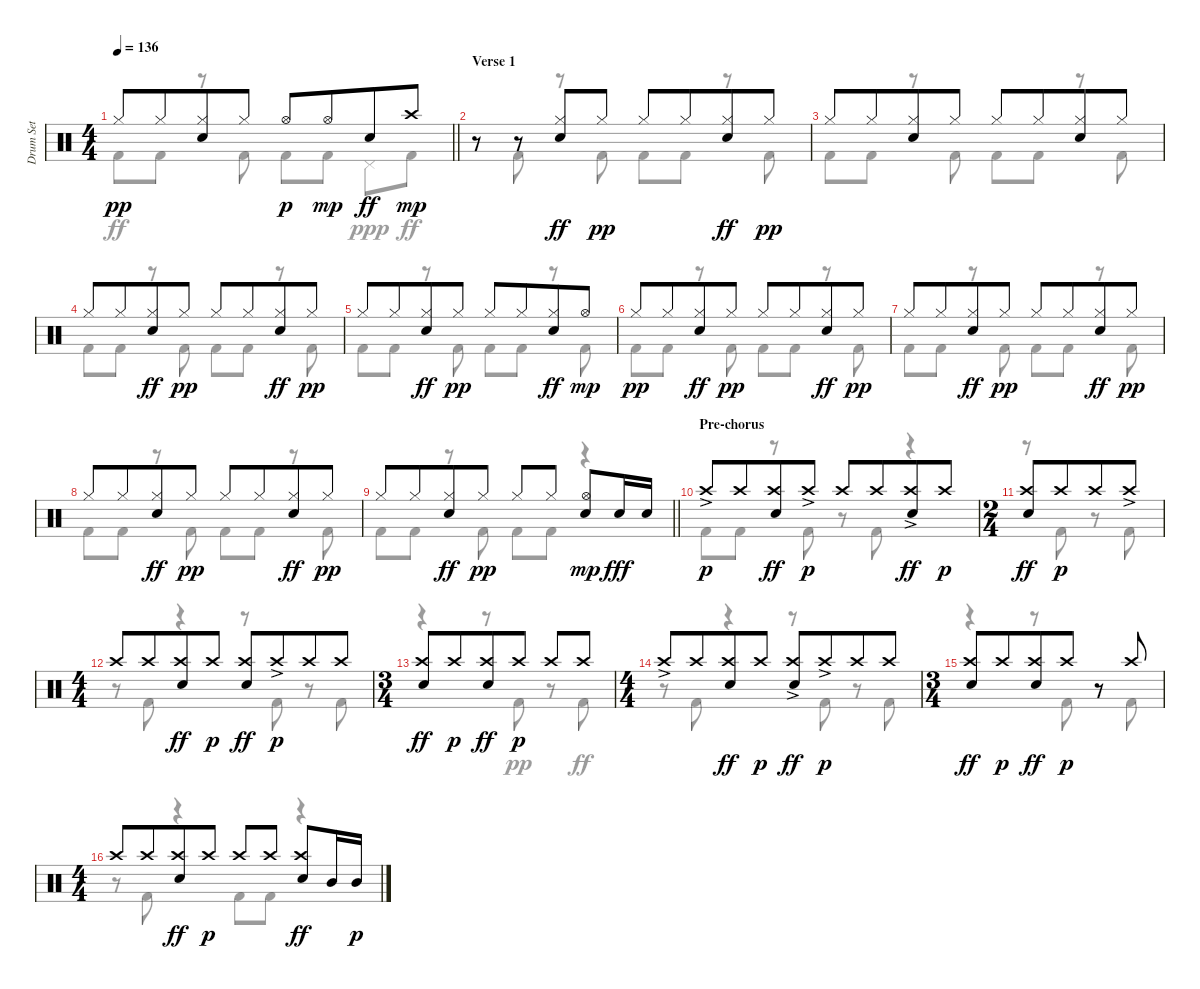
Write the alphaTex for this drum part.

\track ("Drum Set" "Drum Set") {instrument percussion}
\staff {score}
\articulation defaults
\voice
\ts (4 4)
\tempo 136
\clef neutral
\barLineRight lightlight
\ks c "Hi-Hat (closed)".8{dy pp} "Hi-Hat (closed)".8{beam merge}
("Electric Snare (hit)" "Hi-Hat (closed)").8 "Hi-Hat (closed)".8 "Hi-Hat (open)".8{dy p} "Hi-Hat (open)".8{dy mp beam merge} "Electric Snare (hit)".8{dy ff} "Crash high (hit)".8{dy mp} |
\section ("" "Verse 1")
r.8 r.8 ("Hi-Hat (closed)" "Electric Snare (hit)").8{dy ff} "Hi-Hat (closed)".8{dy pp} "Hi-Hat (closed)".8 "Hi-Hat (closed)".8{beam merge} ("Hi-Hat (closed)" "Electric Snare (hit)").8{dy ff} "Hi-Hat (closed)".8{dy pp} |
"Hi-Hat (closed)".8 "Hi-Hat (closed)".8{beam merge} ("Electric Snare (hit)" "Hi-Hat (closed)").8 "Hi-Hat (closed)".8 "Hi-Hat (closed)".8 "Hi-Hat (closed)".8{beam merge} ("Electric Snare (hit)" "Hi-Hat (closed)").8 "Hi-Hat (closed)".8 |
"Hi-Hat (closed)".8 "Hi-Hat (closed)".8{beam merge} ("Hi-Hat (closed)" "Electric Snare (hit)").8{dy ff} "Hi-Hat (closed)".8{dy pp} "Hi-Hat (closed)".8 "Hi-Hat (closed)".8{beam merge} ("Hi-Hat (closed)" "Electric Snare (hit)").8{dy ff} "Hi-Hat (closed)".8{dy pp} |
"Hi-Hat (closed)".8 "Hi-Hat (closed)".8{beam merge} ("Hi-Hat (closed)" "Electric Snare (hit)").8{dy ff} "Hi-Hat (closed)".8{dy pp} "Hi-Hat (closed)".8 "Hi-Hat (closed)".8{beam merge} ("Hi-Hat (closed)" "Electric Snare (hit)").8{dy ff} "Hi-Hat (open)".8{dy mp} |
"Hi-Hat (closed)".8{dy pp} "Hi-Hat (closed)".8{beam merge} ("Hi-Hat (closed)" "Electric Snare (hit)").8{dy ff} "Hi-Hat (closed)".8{dy pp} "Hi-Hat (closed)".8 "Hi-Hat (closed)".8{beam merge} ("Hi-Hat (closed)" "Electric Snare (hit)").8{dy ff} "Hi-Hat (closed)".8{dy pp} |
"Hi-Hat (closed)".8 "Hi-Hat (closed)".8{beam merge} ("Hi-Hat (closed)" "Electric Snare (hit)").8{dy ff} "Hi-Hat (closed)".8{dy pp} "Hi-Hat (closed)".8 "Hi-Hat (closed)".8{beam merge} ("Hi-Hat (closed)" "Electric Snare (hit)").8{dy ff} "Hi-Hat (closed)".8{dy pp} |
"Hi-Hat (closed)".8 "Hi-Hat (closed)".8{beam merge} ("Hi-Hat (closed)" "Electric Snare (hit)").8{dy ff} "Hi-Hat (closed)".8{dy pp} "Hi-Hat (closed)".8 "Hi-Hat (closed)".8{beam merge} ("Hi-Hat (closed)" "Electric Snare (hit)").8{dy ff} "Hi-Hat (closed)".8{dy pp} |
\barLineRight lightlight "Hi-Hat (closed)".8 "Hi-Hat (closed)".8{beam merge}
("Hi-Hat (closed)" "Electric Snare (hit)").8{dy ff} "Hi-Hat (closed)".8{dy pp} "Hi-Hat (closed)".8 "Hi-Hat (closed)".8 ("Electric Snare (hit)" "Hi-Hat (open)").8{dy mp} "Electric Snare (hit)".16{dy fff} "Electric Snare (hit)".16 |
\section ("" "Pre-chorus")
"Crash high (hit)"{ac}.8{dy p} "Crash high (hit)".8{beam merge} ("Crash high (hit)" "Electric Snare (hit)").8{dy ff} "Crash high (hit)"{ac}.8{dy p} "Crash high (hit)".8 "Crash high (hit)".8{beam merge} ("Crash high (hit)"{ac} "Electric Snare (hit)").8{dy ff} "Crash high (hit)".8{dy p} |
\ts (2 4)
("Crash high (hit)" "Electric Snare (hit)").8{dy ff} "Crash high (hit)".8{dy p beam merge} "Crash high (hit)".8 "Crash high (hit)"{ac}.8 |
\ts (4 4)
"Crash high (hit)".8 "Crash high (hit)".8{beam merge} ("Crash high (hit)" "Electric Snare (hit)").8{dy ff} "Crash high (hit)".8{dy p} ("Crash high (hit)" "Electric Snare (hit)").8{dy ff} "Crash high (hit)"{ac}.8{dy p beam merge} "Crash high (hit)".8 "Crash high (hit)".8 |
\ts (3 4)
("Crash high (hit)" "Electric Snare (hit)").8{dy ff} "Crash high (hit)".8{dy p beam merge} ("Crash high (hit)" "Electric Snare (hit)").8{dy ff} "Crash high (hit)".8{dy p} "Crash high (hit)".8 "Crash high (hit)".8 |
\ts (4 4)
"Crash high (hit)"{ac}.8 "Crash high (hit)".8{beam merge} ("Crash high (hit)" "Electric Snare (hit)").8{dy ff} "Crash high (hit)".8{dy p} ("Crash high (hit)"{ac} "Electric Snare (hit)").8{dy ff} "Crash high (hit)"{ac}.8{dy p beam merge} "Crash high (hit)".8 "Crash high (hit)".8 |
\ts (3 4)
("Crash high (hit)" "Electric Snare (hit)").8{dy ff} "Crash high (hit)".8{dy p beam merge} ("Crash high (hit)" "Electric Snare (hit)").8{dy ff} "Crash high (hit)".8{dy p} r.8 "Crash high (hit)".8 |
\ts (4 4)
"Crash high (hit)".8 "Crash high (hit)".8{beam merge} ("Crash high (hit)" "Electric Snare (hit)").8{dy ff} "Crash high (hit)".8{dy p} "Crash high (hit)".8 "Crash high (hit)".8 ("Crash high (hit)" "Electric Snare (hit)").8{dy ff} "Mid Tom (hit)".16 "Mid Tom (hit)".16{dy p}
\voice
\clef neutral
\ottava regular
\simile none
\barLineRight lightlight
\ks c "Kick (hit) 2".8{dy ff} "Kick (hit) 2".8
r.8 "Kick (hit) 2".8 "Kick (hit) 2".8 "Kick (hit) 2".8 "Pedal Hi-Hat (hit)".8{dy ppp} "Kick (hit) 2".8{dy ff} |
r.8 "Kick (hit) 2".8 r.8 "Kick (hit) 2".8 "Kick (hit) 2".8 "Kick (hit) 2".8 r.8 "Kick (hit) 2".8 |
"Kick (hit) 2".8 "Kick (hit) 2".8 r.8 "Kick (hit) 2".8 "Kick (hit) 2".8 "Kick (hit) 2".8 r.8 "Kick (hit) 2".8 |
"Kick (hit) 2".8 "Kick (hit) 2".8 r.8 "Kick (hit) 2".8 "Kick (hit) 2".8 "Kick (hit) 2".8 r.8 "Kick (hit) 2".8 |
"Kick (hit) 2".8 "Kick (hit) 2".8 r.8 "Kick (hit) 2".8 "Kick (hit) 2".8 "Kick (hit) 2".8 r.8 "Kick (hit) 2".8 |
"Kick (hit) 2".8 "Kick (hit) 2".8 r.8 "Kick (hit) 2".8 "Kick (hit) 2".8 "Kick (hit) 2".8 r.8 "Kick (hit) 2".8 |
"Kick (hit) 2".8 "Kick (hit) 2".8 r.8 "Kick (hit) 2".8 "Kick (hit) 2".8 "Kick (hit) 2".8 r.8 "Kick (hit) 2".8 |
"Kick (hit) 2".8 "Kick (hit) 2".8 r.8 "Kick (hit) 2".8 "Kick (hit) 2".8 "Kick (hit) 2".8 r.8 "Kick (hit) 2".8 |
\barLineRight lightlight "Kick (hit) 2".8 "Kick (hit) 2".8
r.8 "Kick (hit) 2".8 "Kick (hit) 2".8 "Kick (hit) 2".8 r.4 |
"Kick (hit) 2".8 "Kick (hit) 2".8 r.8 "Kick (hit) 2".8 r.8 "Kick (hit) 2".8 r.4 |
r.8 "Kick (hit) 2".8 r.8 "Kick (hit) 2".8 |
r.8 "Kick (hit) 2".8 r.4 r.8 "Kick (hit) 2".8 r.8 "Kick (hit) 2".8 |
r.4 r.8 "Kick (hit) 2".8{dy pp} r.8 "Kick (hit) 2".8{dy ff} |
r.8 "Kick (hit) 2".8 r.4 r.8 "Kick (hit) 2".8 r.8 "Kick (hit) 2".8 |
r.4 r.8 "Kick (hit) 2".8 r.8 "Kick (hit) 2".8 |
r.8 "Kick (hit) 2".8 r.4 "Kick (hit) 2".8 "Kick (hit) 2".8 r.4
